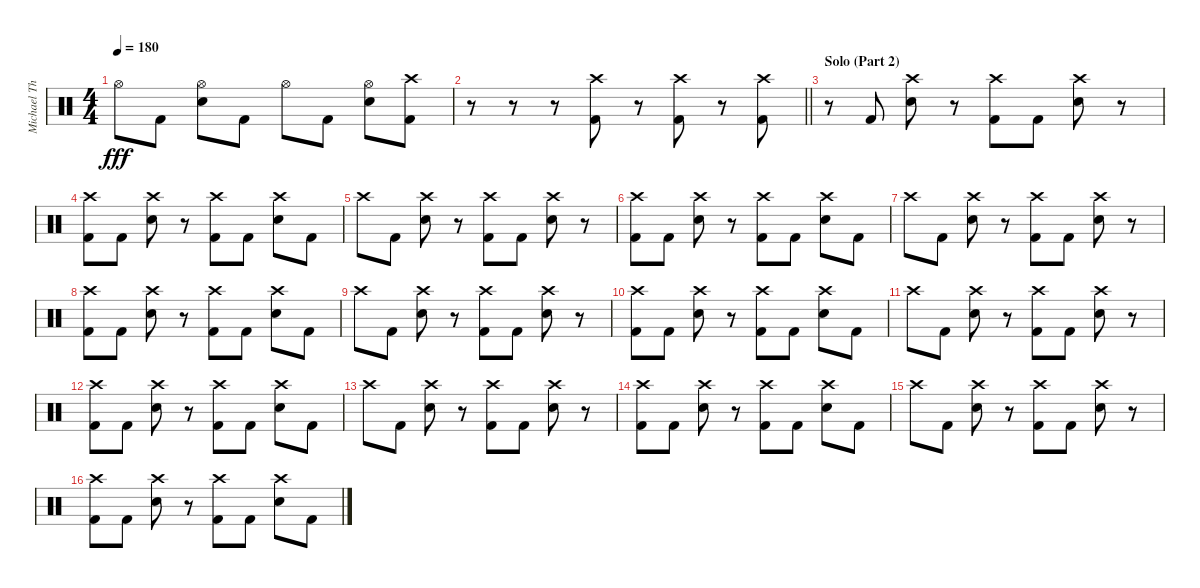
\track ("Michael Thomas" "Michael Th") {instrument percussion}
\staff {score}
\articulation defaults
\ts (4 4)
\tempo 180
\clef neutral
\ks c "Hi-Hat (open)".8{dy fff} "Kick (hit) 2".8
("Hi-Hat (open)" "Electric Snare (hit)").8 "Kick (hit) 2".8 "Hi-Hat (open)".8 "Kick (hit) 2".8 ("Hi-Hat (open)" "Electric Snare (hit)").8 ("Crash high (hit)" "Kick (hit) 2").8 |
\barLineRight lightlight
r.8 r.8 r.8 ("Crash high (hit)" "Kick (hit) 2").8 r.8 ("Crash high (hit)" "Kick (hit) 2").8 r.8 ("Crash high (hit)" "Kick (hit) 2").8 |
\section ("" "Solo (Part 2)")
r.8 "Kick (hit) 2".8 ("Crash high (hit)" "Electric Snare (hit)").8 r.8 ("Crash high (hit)" "Kick (hit) 2").8 "Kick (hit) 2".8 ("Crash high (hit)" "Electric Snare (hit)").8 r.8 |
("Crash high (hit)" "Kick (hit) 2").8 "Kick (hit) 2".8 ("Crash high (hit)" "Electric Snare (hit)").8 r.8 ("Crash high (hit)" "Kick (hit) 2").8 "Kick (hit) 2".8 ("Crash high (hit)" "Electric Snare (hit)").8 "Kick (hit) 2".8 |
"Crash high (hit)".8 "Kick (hit) 2".8 ("Crash high (hit)" "Electric Snare (hit)").8 r.8 ("Crash high (hit)" "Kick (hit) 2").8 "Kick (hit) 2".8 ("Crash high (hit)" "Electric Snare (hit)").8 r.8 |
("Crash high (hit)" "Kick (hit) 2").8 "Kick (hit) 2".8 ("Crash high (hit)" "Electric Snare (hit)").8 r.8 ("Crash high (hit)" "Kick (hit) 2").8 "Kick (hit) 2".8 ("Crash high (hit)" "Electric Snare (hit)").8 "Kick (hit) 2".8 |
"Crash high (hit)".8 "Kick (hit) 2".8 ("Crash high (hit)" "Electric Snare (hit)").8 r.8 ("Crash high (hit)" "Kick (hit) 2").8 "Kick (hit) 2".8 ("Crash high (hit)" "Electric Snare (hit)").8 r.8 |
("Crash high (hit)" "Kick (hit) 2").8 "Kick (hit) 2".8 ("Crash high (hit)" "Electric Snare (hit)").8 r.8 ("Crash high (hit)" "Kick (hit) 2").8 "Kick (hit) 2".8 ("Crash high (hit)" "Electric Snare (hit)").8 "Kick (hit) 2".8 |
"Crash high (hit)".8 "Kick (hit) 2".8 ("Crash high (hit)" "Electric Snare (hit)").8 r.8 ("Crash high (hit)" "Kick (hit) 2").8 "Kick (hit) 2".8 ("Crash high (hit)" "Electric Snare (hit)").8 r.8 |
("Crash high (hit)" "Kick (hit) 2").8 "Kick (hit) 2".8 ("Crash high (hit)" "Electric Snare (hit)").8 r.8 ("Crash high (hit)" "Kick (hit) 2").8 "Kick (hit) 2".8 ("Crash high (hit)" "Electric Snare (hit)").8 "Kick (hit) 2".8 |
"Crash high (hit)".8 "Kick (hit) 2".8 ("Crash high (hit)" "Electric Snare (hit)").8 r.8 ("Crash high (hit)" "Kick (hit) 2").8 "Kick (hit) 2".8 ("Crash high (hit)" "Electric Snare (hit)").8 r.8 |
("Crash high (hit)" "Kick (hit) 2").8 "Kick (hit) 2".8 ("Crash high (hit)" "Electric Snare (hit)").8 r.8 ("Crash high (hit)" "Kick (hit) 2").8 "Kick (hit) 2".8 ("Crash high (hit)" "Electric Snare (hit)").8 "Kick (hit) 2".8 |
"Crash high (hit)".8 "Kick (hit) 2".8 ("Crash high (hit)" "Electric Snare (hit)").8 r.8 ("Crash high (hit)" "Kick (hit) 2").8 "Kick (hit) 2".8 ("Crash high (hit)" "Electric Snare (hit)").8 r.8 |
("Crash high (hit)" "Kick (hit) 2").8 "Kick (hit) 2".8 ("Crash high (hit)" "Electric Snare (hit)").8 r.8 ("Crash high (hit)" "Kick (hit) 2").8 "Kick (hit) 2".8 ("Crash high (hit)" "Electric Snare (hit)").8 "Kick (hit) 2".8 |
"Crash high (hit)".8 "Kick (hit) 2".8 ("Crash high (hit)" "Electric Snare (hit)").8 r.8 ("Crash high (hit)" "Kick (hit) 2").8 "Kick (hit) 2".8 ("Crash high (hit)" "Electric Snare (hit)").8 r.8 |
("Crash high (hit)" "Kick (hit) 2").8 "Kick (hit) 2".8 ("Crash high (hit)" "Electric Snare (hit)").8 r.8 ("Crash high (hit)" "Kick (hit) 2").8 "Kick (hit) 2".8 ("Crash high (hit)" "Electric Snare (hit)").8 "Kick (hit) 2".8
